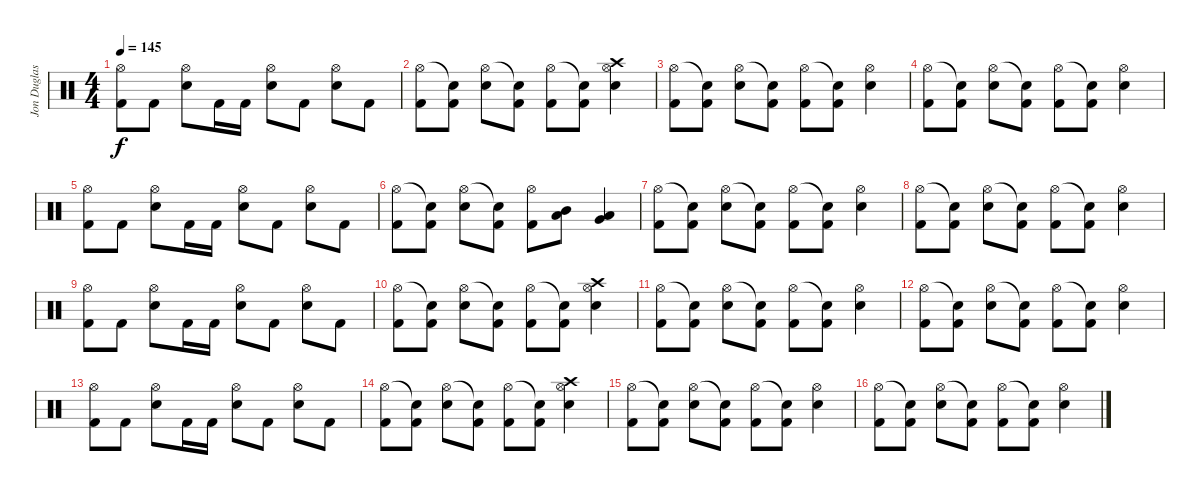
\track ("Jon Duglas (Drums)" "Jon Duglas") {instrument percussion}
\staff {score}
\articulation defaults
\ts (4 4)
\tempo 145
\clef neutral
\ks c
("Kick (hit) 2" "Hi-Hat (open)").8{dy f} "Kick (hit) 2".8 ("Electric Snare (hit)" "Hi-Hat (open)").8 "Kick (hit) 2".16 "Kick (hit) 2".16 ("Electric Snare (hit)" "Hi-Hat (open)").8 "Kick (hit) 2".8 ("Electric Snare (hit)" "Hi-Hat (open)").8 "Kick (hit) 2".8 |
("Kick (hit) 2" "Hi-Hat (open)").8 ("Kick (hit) 2" "Snare (hit)"{t}).8 ("Electric Snare (hit)" "Hi-Hat (open)").8 ("Kick (hit) 2" "Snare (hit)"{t}).8 ("Kick (hit) 2" "Hi-Hat (open)").8 ("Kick (hit) 2" "Snare (hit)"{t}).8 ("Electric Snare (hit)" "Hi-Hat (open)" "Crash high (hit)").4 |
("Kick (hit) 2" "Hi-Hat (open)").8 ("Kick (hit) 2" "Snare (hit)"{t}).8 ("Electric Snare (hit)" "Hi-Hat (open)").8 ("Kick (hit) 2" "Snare (hit)"{t}).8 ("Kick (hit) 2" "Hi-Hat (open)").8 ("Kick (hit) 2" "Snare (hit)"{t}).8 ("Electric Snare (hit)" "Hi-Hat (open)").4 |
("Kick (hit) 2" "Hi-Hat (open)").8 ("Kick (hit) 2" "Snare (hit)"{t}).8 ("Electric Snare (hit)" "Hi-Hat (open)").8 ("Kick (hit) 2" "Snare (hit)"{t}).8 ("Kick (hit) 2" "Hi-Hat (open)").8 ("Kick (hit) 2" "Snare (hit)"{t}).8 ("Electric Snare (hit)" "Hi-Hat (open)").4 |
("Kick (hit) 2" "Hi-Hat (open)").8 "Kick (hit) 2".8 ("Electric Snare (hit)" "Hi-Hat (open)").8 "Kick (hit) 2".16 "Kick (hit) 2".16 ("Electric Snare (hit)" "Hi-Hat (open)").8 "Kick (hit) 2".8 ("Electric Snare (hit)" "Hi-Hat (open)").8 "Kick (hit) 2".8 |
("Kick (hit) 2" "Hi-Hat (open)").8 ("Kick (hit) 2" "Snare (hit)"{t}).8 ("Electric Snare (hit)" "Hi-Hat (open)").8 ("Kick (hit) 2" "Snare (hit)"{t}).8 ("Kick (hit) 2" "Hi-Hat (open)").8 ("Low Tom (hit)" "Mid Tom (hit)").8 ("Low Tom (hit)" "Very Low Tom (hit)").4 |
("Kick (hit) 2" "Hi-Hat (open)").8 ("Kick (hit) 2" "Snare (hit)"{t}).8 ("Electric Snare (hit)" "Hi-Hat (open)").8 ("Kick (hit) 2" "Snare (hit)"{t}).8 ("Kick (hit) 2" "Hi-Hat (open)").8 ("Kick (hit) 2" "Snare (hit)"{t}).8 ("Electric Snare (hit)" "Hi-Hat (open)").4 |
("Kick (hit) 2" "Hi-Hat (open)").8 ("Kick (hit) 2" "Snare (hit)"{t}).8 ("Electric Snare (hit)" "Hi-Hat (open)").8 ("Kick (hit) 2" "Snare (hit)"{t}).8 ("Kick (hit) 2" "Hi-Hat (open)").8 ("Kick (hit) 2" "Snare (hit)"{t}).8 ("Electric Snare (hit)" "Hi-Hat (open)").4 |
("Kick (hit) 2" "Hi-Hat (open)").8 "Kick (hit) 2".8 ("Electric Snare (hit)" "Hi-Hat (open)").8 "Kick (hit) 2".16 "Kick (hit) 2".16 ("Electric Snare (hit)" "Hi-Hat (open)").8 "Kick (hit) 2".8 ("Electric Snare (hit)" "Hi-Hat (open)").8 "Kick (hit) 2".8 |
("Kick (hit) 2" "Hi-Hat (open)").8 ("Kick (hit) 2" "Snare (hit)"{t}).8 ("Electric Snare (hit)" "Hi-Hat (open)").8 ("Kick (hit) 2" "Snare (hit)"{t}).8 ("Kick (hit) 2" "Hi-Hat (open)").8 ("Kick (hit) 2" "Snare (hit)"{t}).8 ("Electric Snare (hit)" "Hi-Hat (open)" "Crash high (hit)").4 |
("Kick (hit) 2" "Hi-Hat (open)").8 ("Kick (hit) 2" "Snare (hit)"{t}).8 ("Electric Snare (hit)" "Hi-Hat (open)").8 ("Kick (hit) 2" "Snare (hit)"{t}).8 ("Kick (hit) 2" "Hi-Hat (open)").8 ("Kick (hit) 2" "Snare (hit)"{t}).8 ("Electric Snare (hit)" "Hi-Hat (open)").4 |
("Kick (hit) 2" "Hi-Hat (open)").8 ("Kick (hit) 2" "Snare (hit)"{t}).8 ("Electric Snare (hit)" "Hi-Hat (open)").8 ("Kick (hit) 2" "Snare (hit)"{t}).8 ("Kick (hit) 2" "Hi-Hat (open)").8 ("Kick (hit) 2" "Snare (hit)"{t}).8 ("Electric Snare (hit)" "Hi-Hat (open)").4 |
("Kick (hit) 2" "Hi-Hat (open)").8 "Kick (hit) 2".8 ("Electric Snare (hit)" "Hi-Hat (open)").8 "Kick (hit) 2".16 "Kick (hit) 2".16 ("Electric Snare (hit)" "Hi-Hat (open)").8 "Kick (hit) 2".8 ("Electric Snare (hit)" "Hi-Hat (open)").8 "Kick (hit) 2".8 |
("Kick (hit) 2" "Hi-Hat (open)").8 ("Kick (hit) 2" "Snare (hit)"{t}).8 ("Electric Snare (hit)" "Hi-Hat (open)").8 ("Kick (hit) 2" "Snare (hit)"{t}).8 ("Kick (hit) 2" "Hi-Hat (open)").8 ("Kick (hit) 2" "Snare (hit)"{t}).8 ("Electric Snare (hit)" "Hi-Hat (open)" "Crash high (hit)").4 |
("Kick (hit) 2" "Hi-Hat (open)").8 ("Kick (hit) 2" "Snare (hit)"{t}).8 ("Electric Snare (hit)" "Hi-Hat (open)").8 ("Kick (hit) 2" "Snare (hit)"{t}).8 ("Kick (hit) 2" "Hi-Hat (open)").8 ("Kick (hit) 2" "Snare (hit)"{t}).8 ("Electric Snare (hit)" "Hi-Hat (open)").4 |
("Kick (hit) 2" "Hi-Hat (open)").8 ("Kick (hit) 2" "Snare (hit)"{t}).8 ("Electric Snare (hit)" "Hi-Hat (open)").8 ("Kick (hit) 2" "Snare (hit)"{t}).8 ("Kick (hit) 2" "Hi-Hat (open)").8 ("Kick (hit) 2" "Snare (hit)"{t}).8 ("Electric Snare (hit)" "Hi-Hat (open)").4
